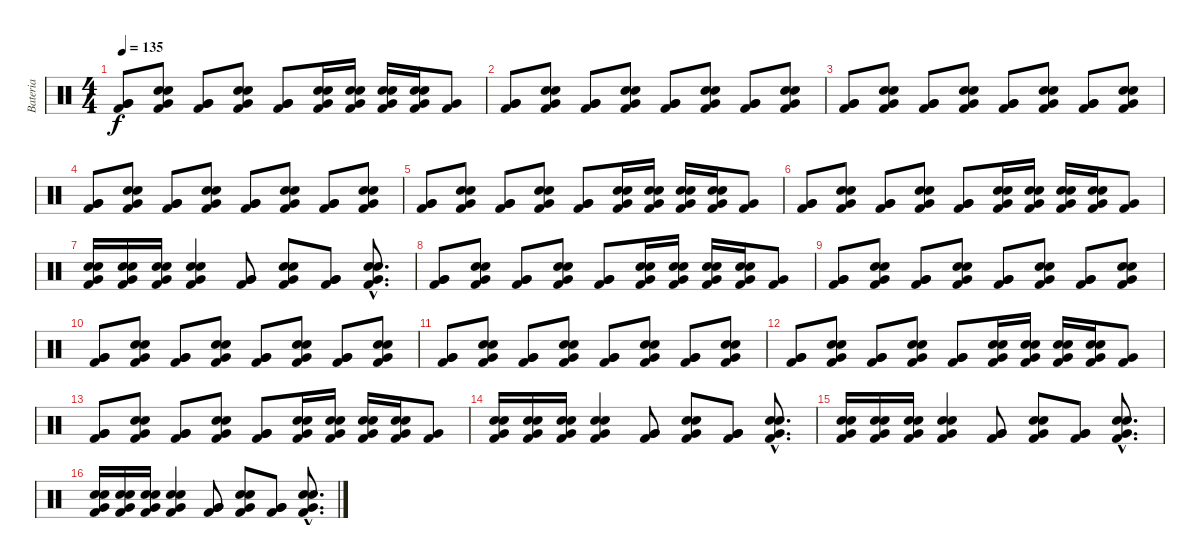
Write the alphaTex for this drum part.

\track ("Bateria" "Bateria") {instrument percussion}
\staff {score}
\articulation defaults
\ts (4 4)
\tempo 135
\clef neutral
\ks c
("Very Low Tom (hit)" "Very Low Tom (hit)" "Kick (hit) 2").8{dy f} ("Electric Snare (hit)" "Electric Snare (hit)" "Very Low Tom (hit)" "Kick (hit) 2").8 ("Very Low Tom (hit)" "Very Low Tom (hit)" "Kick (hit) 2").8 ("Electric Snare (hit)" "Electric Snare (hit)" "Very Low Tom (hit)" "Kick (hit) 2").8 ("Very Low Tom (hit)" "Very Low Tom (hit)" "Kick (hit) 2").8 ("Electric Snare (hit)" "Electric Snare (hit)" "Very Low Tom (hit)" "Kick (hit) 2").16 ("Electric Snare (hit)" "Electric Snare (hit)" "Very Low Tom (hit)" "Kick (hit) 2").16 ("Electric Snare (hit)" "Electric Snare (hit)" "Very Low Tom (hit)" "Kick (hit) 2").16 ("Electric Snare (hit)" "Electric Snare (hit)" "Very Low Tom (hit)" "Kick (hit) 2").16 ("Very Low Tom (hit)" "Kick (hit) 2").8 |
("Very Low Tom (hit)" "Very Low Tom (hit)" "Kick (hit) 2").8 ("Electric Snare (hit)" "Electric Snare (hit)" "Very Low Tom (hit)" "Kick (hit) 2").8 ("Very Low Tom (hit)" "Very Low Tom (hit)" "Kick (hit) 2").8 ("Electric Snare (hit)" "Electric Snare (hit)" "Very Low Tom (hit)" "Kick (hit) 2").8 ("Very Low Tom (hit)" "Very Low Tom (hit)" "Kick (hit) 2").8 ("Electric Snare (hit)" "Electric Snare (hit)" "Very Low Tom (hit)" "Kick (hit) 2").8 ("Very Low Tom (hit)" "Very Low Tom (hit)" "Kick (hit) 2").8 ("Electric Snare (hit)" "Electric Snare (hit)" "Very Low Tom (hit)" "Kick (hit) 2").8 |
("Very Low Tom (hit)" "Very Low Tom (hit)" "Kick (hit) 2").8 ("Electric Snare (hit)" "Electric Snare (hit)" "Very Low Tom (hit)" "Kick (hit) 2").8 ("Very Low Tom (hit)" "Very Low Tom (hit)" "Kick (hit) 2").8 ("Electric Snare (hit)" "Electric Snare (hit)" "Very Low Tom (hit)" "Kick (hit) 2").8 ("Very Low Tom (hit)" "Very Low Tom (hit)" "Kick (hit) 2").8 ("Electric Snare (hit)" "Electric Snare (hit)" "Very Low Tom (hit)" "Kick (hit) 2").8 ("Very Low Tom (hit)" "Very Low Tom (hit)" "Kick (hit) 2").8 ("Electric Snare (hit)" "Electric Snare (hit)" "Very Low Tom (hit)" "Kick (hit) 2").8 |
("Very Low Tom (hit)" "Very Low Tom (hit)" "Kick (hit) 2").8 ("Electric Snare (hit)" "Electric Snare (hit)" "Very Low Tom (hit)" "Kick (hit) 2").8 ("Very Low Tom (hit)" "Very Low Tom (hit)" "Kick (hit) 2").8 ("Electric Snare (hit)" "Electric Snare (hit)" "Very Low Tom (hit)" "Kick (hit) 2").8 ("Very Low Tom (hit)" "Very Low Tom (hit)" "Kick (hit) 2").8 ("Electric Snare (hit)" "Electric Snare (hit)" "Very Low Tom (hit)" "Kick (hit) 2").8 ("Very Low Tom (hit)" "Very Low Tom (hit)" "Kick (hit) 2").8 ("Electric Snare (hit)" "Electric Snare (hit)" "Very Low Tom (hit)" "Kick (hit) 2").8 |
("Very Low Tom (hit)" "Very Low Tom (hit)" "Kick (hit) 2").8 ("Electric Snare (hit)" "Electric Snare (hit)" "Very Low Tom (hit)" "Kick (hit) 2").8 ("Very Low Tom (hit)" "Very Low Tom (hit)" "Kick (hit) 2").8 ("Electric Snare (hit)" "Electric Snare (hit)" "Very Low Tom (hit)" "Kick (hit) 2").8 ("Very Low Tom (hit)" "Very Low Tom (hit)" "Kick (hit) 2").8 ("Electric Snare (hit)" "Electric Snare (hit)" "Very Low Tom (hit)" "Kick (hit) 2").16 ("Electric Snare (hit)" "Electric Snare (hit)" "Very Low Tom (hit)" "Kick (hit) 2").16 ("Electric Snare (hit)" "Electric Snare (hit)" "Very Low Tom (hit)" "Kick (hit) 2").16 ("Electric Snare (hit)" "Electric Snare (hit)" "Very Low Tom (hit)" "Kick (hit) 2").16 ("Very Low Tom (hit)" "Kick (hit) 2").8 |
("Very Low Tom (hit)" "Very Low Tom (hit)" "Kick (hit) 2").8 ("Electric Snare (hit)" "Electric Snare (hit)" "Very Low Tom (hit)" "Kick (hit) 2").8 ("Very Low Tom (hit)" "Very Low Tom (hit)" "Kick (hit) 2").8 ("Electric Snare (hit)" "Electric Snare (hit)" "Very Low Tom (hit)" "Kick (hit) 2").8 ("Very Low Tom (hit)" "Very Low Tom (hit)" "Kick (hit) 2").8 ("Electric Snare (hit)" "Electric Snare (hit)" "Very Low Tom (hit)" "Kick (hit) 2").16 ("Electric Snare (hit)" "Electric Snare (hit)" "Very Low Tom (hit)" "Kick (hit) 2").16 ("Electric Snare (hit)" "Electric Snare (hit)" "Very Low Tom (hit)" "Kick (hit) 2").16 ("Electric Snare (hit)" "Electric Snare (hit)" "Very Low Tom (hit)" "Kick (hit) 2").16 ("Very Low Tom (hit)" "Kick (hit) 2").8 |
("Electric Snare (hit)" "Electric Snare (hit)" "Very Low Tom (hit)" "Kick (hit) 2").16 ("Electric Snare (hit)" "Electric Snare (hit)" "Very Low Tom (hit)" "Kick (hit) 2").16 ("Electric Snare (hit)" "Electric Snare (hit)" "Very Low Tom (hit)" "Kick (hit) 2").16 ("Electric Snare (hit)" "Electric Snare (hit)" "Very Low Tom (hit)" "Kick (hit) 2").4 ("Very Low Tom (hit)" "Very Low Tom (hit)" "Kick (hit) 2").8 ("Electric Snare (hit)" "Electric Snare (hit)" "Very Low Tom (hit)" "Kick (hit) 2").8 ("Very Low Tom (hit)" "Very Low Tom (hit)" "Kick (hit) 2").8 ("Electric Snare (hit)"{hac} "Electric Snare (hit)"{hac} "Very Low Tom (hit)"{hac} "Kick (hit) 2"{hac}).8{d} |
("Very Low Tom (hit)" "Very Low Tom (hit)" "Kick (hit) 2").8 ("Electric Snare (hit)" "Electric Snare (hit)" "Very Low Tom (hit)" "Kick (hit) 2").8 ("Very Low Tom (hit)" "Very Low Tom (hit)" "Kick (hit) 2").8 ("Electric Snare (hit)" "Electric Snare (hit)" "Very Low Tom (hit)" "Kick (hit) 2").8 ("Very Low Tom (hit)" "Very Low Tom (hit)" "Kick (hit) 2").8 ("Electric Snare (hit)" "Electric Snare (hit)" "Very Low Tom (hit)" "Kick (hit) 2").16 ("Electric Snare (hit)" "Electric Snare (hit)" "Very Low Tom (hit)" "Kick (hit) 2").16 ("Electric Snare (hit)" "Electric Snare (hit)" "Very Low Tom (hit)" "Kick (hit) 2").16 ("Electric Snare (hit)" "Electric Snare (hit)" "Very Low Tom (hit)" "Kick (hit) 2").16 ("Very Low Tom (hit)" "Kick (hit) 2").8 |
("Very Low Tom (hit)" "Very Low Tom (hit)" "Kick (hit) 2").8 ("Electric Snare (hit)" "Electric Snare (hit)" "Very Low Tom (hit)" "Kick (hit) 2").8 ("Very Low Tom (hit)" "Very Low Tom (hit)" "Kick (hit) 2").8 ("Electric Snare (hit)" "Electric Snare (hit)" "Very Low Tom (hit)" "Kick (hit) 2").8 ("Very Low Tom (hit)" "Very Low Tom (hit)" "Kick (hit) 2").8 ("Electric Snare (hit)" "Electric Snare (hit)" "Very Low Tom (hit)" "Kick (hit) 2").8 ("Very Low Tom (hit)" "Very Low Tom (hit)" "Kick (hit) 2").8 ("Electric Snare (hit)" "Electric Snare (hit)" "Very Low Tom (hit)" "Kick (hit) 2").8 |
("Very Low Tom (hit)" "Very Low Tom (hit)" "Kick (hit) 2").8 ("Electric Snare (hit)" "Electric Snare (hit)" "Very Low Tom (hit)" "Kick (hit) 2").8 ("Very Low Tom (hit)" "Very Low Tom (hit)" "Kick (hit) 2").8 ("Electric Snare (hit)" "Electric Snare (hit)" "Very Low Tom (hit)" "Kick (hit) 2").8 ("Very Low Tom (hit)" "Very Low Tom (hit)" "Kick (hit) 2").8 ("Electric Snare (hit)" "Electric Snare (hit)" "Very Low Tom (hit)" "Kick (hit) 2").8 ("Very Low Tom (hit)" "Very Low Tom (hit)" "Kick (hit) 2").8 ("Electric Snare (hit)" "Electric Snare (hit)" "Very Low Tom (hit)" "Kick (hit) 2").8 |
("Very Low Tom (hit)" "Very Low Tom (hit)" "Kick (hit) 2").8 ("Electric Snare (hit)" "Electric Snare (hit)" "Very Low Tom (hit)" "Kick (hit) 2").8 ("Very Low Tom (hit)" "Very Low Tom (hit)" "Kick (hit) 2").8 ("Electric Snare (hit)" "Electric Snare (hit)" "Very Low Tom (hit)" "Kick (hit) 2").8 ("Very Low Tom (hit)" "Very Low Tom (hit)" "Kick (hit) 2").8 ("Electric Snare (hit)" "Electric Snare (hit)" "Very Low Tom (hit)" "Kick (hit) 2").8 ("Very Low Tom (hit)" "Very Low Tom (hit)" "Kick (hit) 2").8 ("Electric Snare (hit)" "Electric Snare (hit)" "Very Low Tom (hit)" "Kick (hit) 2").8 |
("Very Low Tom (hit)" "Very Low Tom (hit)" "Kick (hit) 2").8 ("Electric Snare (hit)" "Electric Snare (hit)" "Very Low Tom (hit)" "Kick (hit) 2").8 ("Very Low Tom (hit)" "Very Low Tom (hit)" "Kick (hit) 2").8 ("Electric Snare (hit)" "Electric Snare (hit)" "Very Low Tom (hit)" "Kick (hit) 2").8 ("Very Low Tom (hit)" "Very Low Tom (hit)" "Kick (hit) 2").8 ("Electric Snare (hit)" "Electric Snare (hit)" "Very Low Tom (hit)" "Kick (hit) 2").16 ("Electric Snare (hit)" "Electric Snare (hit)" "Very Low Tom (hit)" "Kick (hit) 2").16 ("Electric Snare (hit)" "Electric Snare (hit)" "Very Low Tom (hit)" "Kick (hit) 2").16 ("Electric Snare (hit)" "Electric Snare (hit)" "Very Low Tom (hit)" "Kick (hit) 2").16 ("Very Low Tom (hit)" "Kick (hit) 2").8 |
("Very Low Tom (hit)" "Very Low Tom (hit)" "Kick (hit) 2").8 ("Electric Snare (hit)" "Electric Snare (hit)" "Very Low Tom (hit)" "Kick (hit) 2").8 ("Very Low Tom (hit)" "Very Low Tom (hit)" "Kick (hit) 2").8 ("Electric Snare (hit)" "Electric Snare (hit)" "Very Low Tom (hit)" "Kick (hit) 2").8 ("Very Low Tom (hit)" "Very Low Tom (hit)" "Kick (hit) 2").8 ("Electric Snare (hit)" "Electric Snare (hit)" "Very Low Tom (hit)" "Kick (hit) 2").16 ("Electric Snare (hit)" "Electric Snare (hit)" "Very Low Tom (hit)" "Kick (hit) 2").16 ("Electric Snare (hit)" "Electric Snare (hit)" "Very Low Tom (hit)" "Kick (hit) 2").16 ("Electric Snare (hit)" "Electric Snare (hit)" "Very Low Tom (hit)" "Kick (hit) 2").16 ("Very Low Tom (hit)" "Kick (hit) 2").8 |
("Electric Snare (hit)" "Electric Snare (hit)" "Very Low Tom (hit)" "Kick (hit) 2").16 ("Electric Snare (hit)" "Electric Snare (hit)" "Very Low Tom (hit)" "Kick (hit) 2").16 ("Electric Snare (hit)" "Electric Snare (hit)" "Very Low Tom (hit)" "Kick (hit) 2").16 ("Electric Snare (hit)" "Electric Snare (hit)" "Very Low Tom (hit)" "Kick (hit) 2").4 ("Very Low Tom (hit)" "Very Low Tom (hit)" "Kick (hit) 2").8 ("Electric Snare (hit)" "Electric Snare (hit)" "Very Low Tom (hit)" "Kick (hit) 2").8 ("Very Low Tom (hit)" "Very Low Tom (hit)" "Kick (hit) 2").8 ("Electric Snare (hit)"{hac} "Electric Snare (hit)"{hac} "Very Low Tom (hit)"{hac} "Kick (hit) 2"{hac}).8{d} |
("Electric Snare (hit)" "Electric Snare (hit)" "Very Low Tom (hit)" "Kick (hit) 2").16 ("Electric Snare (hit)" "Electric Snare (hit)" "Very Low Tom (hit)" "Kick (hit) 2").16 ("Electric Snare (hit)" "Electric Snare (hit)" "Very Low Tom (hit)" "Kick (hit) 2").16 ("Electric Snare (hit)" "Electric Snare (hit)" "Very Low Tom (hit)" "Kick (hit) 2").4 ("Very Low Tom (hit)" "Very Low Tom (hit)" "Kick (hit) 2").8 ("Electric Snare (hit)" "Electric Snare (hit)" "Very Low Tom (hit)" "Kick (hit) 2").8 ("Very Low Tom (hit)" "Very Low Tom (hit)" "Kick (hit) 2").8 ("Electric Snare (hit)"{hac} "Electric Snare (hit)"{hac} "Very Low Tom (hit)"{hac} "Kick (hit) 2"{hac}).8{d} |
("Electric Snare (hit)" "Electric Snare (hit)" "Very Low Tom (hit)" "Kick (hit) 2").16 ("Electric Snare (hit)" "Electric Snare (hit)" "Very Low Tom (hit)" "Kick (hit) 2").16 ("Electric Snare (hit)" "Electric Snare (hit)" "Very Low Tom (hit)" "Kick (hit) 2").16 ("Electric Snare (hit)" "Electric Snare (hit)" "Very Low Tom (hit)" "Kick (hit) 2").4 ("Very Low Tom (hit)" "Very Low Tom (hit)" "Kick (hit) 2").8 ("Electric Snare (hit)" "Electric Snare (hit)" "Very Low Tom (hit)" "Kick (hit) 2").8 ("Very Low Tom (hit)" "Very Low Tom (hit)" "Kick (hit) 2").8 ("Electric Snare (hit)"{hac} "Electric Snare (hit)"{hac} "Very Low Tom (hit)"{hac} "Kick (hit) 2"{hac}).8{d}
